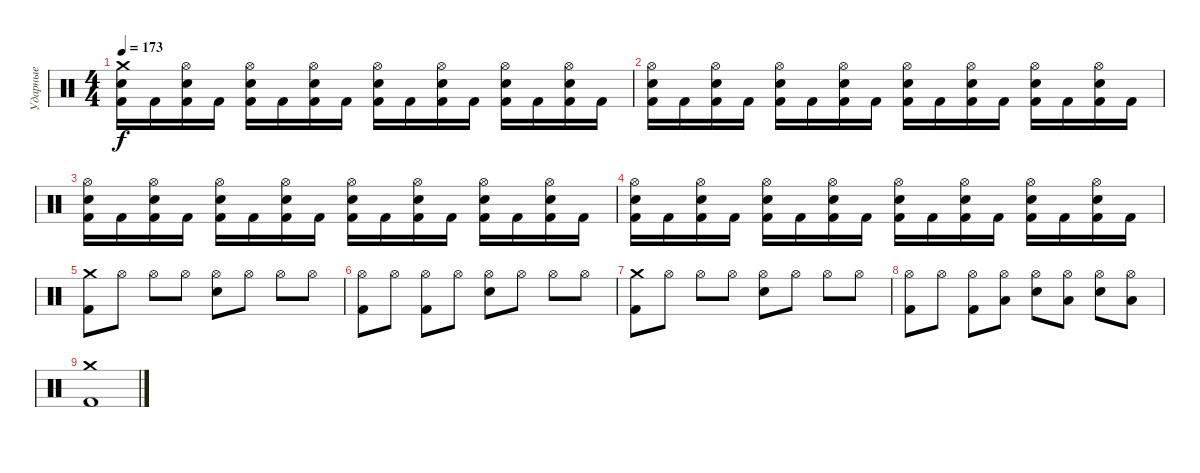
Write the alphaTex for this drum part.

\track ("Ударные" "Ударные") {instrument percussion}
\staff {score}
\articulation defaults
\ts (4 4)
\tempo 173
\clef neutral
\ks c
("Crash medium (hit)" "Electric Snare (hit)" "Kick (hit) 2").16{dy f} "Kick (hit) 2".16 ("Hi-Hat (open)" "Electric Snare (hit)" "Kick (hit) 2").16 "Kick (hit) 2".16 ("Hi-Hat (open)" "Electric Snare (hit)" "Kick (hit) 2").16 "Kick (hit) 2".16 ("Hi-Hat (open)" "Electric Snare (hit)" "Kick (hit) 2").16 "Kick (hit) 2".16 ("Hi-Hat (open)" "Electric Snare (hit)" "Kick (hit) 2").16 "Kick (hit) 2".16 ("Hi-Hat (open)" "Electric Snare (hit)" "Kick (hit) 2").16 "Kick (hit) 2".16 ("Hi-Hat (open)" "Electric Snare (hit)" "Kick (hit) 2").16 "Kick (hit) 2".16 ("Hi-Hat (open)" "Electric Snare (hit)" "Kick (hit) 2").16 "Kick (hit) 2".16 |
("Hi-Hat (open)" "Electric Snare (hit)" "Kick (hit) 2").16 "Kick (hit) 2".16 ("Hi-Hat (open)" "Electric Snare (hit)" "Kick (hit) 2").16 "Kick (hit) 2".16 ("Hi-Hat (open)" "Electric Snare (hit)" "Kick (hit) 2").16 "Kick (hit) 2".16 ("Hi-Hat (open)" "Electric Snare (hit)" "Kick (hit) 2").16 "Kick (hit) 2".16 ("Hi-Hat (open)" "Electric Snare (hit)" "Kick (hit) 2").16 "Kick (hit) 2".16 ("Hi-Hat (open)" "Electric Snare (hit)" "Kick (hit) 2").16 "Kick (hit) 2".16 ("Hi-Hat (open)" "Electric Snare (hit)" "Kick (hit) 2").16 "Kick (hit) 2".16 ("Hi-Hat (open)" "Electric Snare (hit)" "Kick (hit) 2").16 "Kick (hit) 2".16 |
("Hi-Hat (open)" "Electric Snare (hit)" "Kick (hit) 2").16 "Kick (hit) 2".16 ("Hi-Hat (open)" "Electric Snare (hit)" "Kick (hit) 2").16 "Kick (hit) 2".16 ("Hi-Hat (open)" "Electric Snare (hit)" "Kick (hit) 2").16 "Kick (hit) 2".16 ("Hi-Hat (open)" "Electric Snare (hit)" "Kick (hit) 2").16 "Kick (hit) 2".16 ("Hi-Hat (open)" "Electric Snare (hit)" "Kick (hit) 2").16 "Kick (hit) 2".16 ("Hi-Hat (open)" "Electric Snare (hit)" "Kick (hit) 2").16 "Kick (hit) 2".16 ("Hi-Hat (open)" "Electric Snare (hit)" "Kick (hit) 2").16 "Kick (hit) 2".16 ("Hi-Hat (open)" "Electric Snare (hit)" "Kick (hit) 2").16 "Kick (hit) 2".16 |
("Hi-Hat (open)" "Electric Snare (hit)" "Kick (hit) 2").16 "Kick (hit) 2".16 ("Hi-Hat (open)" "Electric Snare (hit)" "Kick (hit) 2").16 "Kick (hit) 2".16 ("Hi-Hat (open)" "Electric Snare (hit)" "Kick (hit) 2").16 "Kick (hit) 2".16 ("Hi-Hat (open)" "Electric Snare (hit)" "Kick (hit) 2").16 "Kick (hit) 2".16 ("Hi-Hat (open)" "Electric Snare (hit)" "Kick (hit) 2").16 "Kick (hit) 2".16 ("Hi-Hat (open)" "Electric Snare (hit)" "Kick (hit) 2").16 "Kick (hit) 2".16 ("Hi-Hat (open)" "Electric Snare (hit)" "Kick (hit) 2").16 "Kick (hit) 2".16 ("Hi-Hat (open)" "Electric Snare (hit)" "Kick (hit) 2").16 "Kick (hit) 2".16 |
("Crash medium (hit)" "Kick (hit) 2").8 "Hi-Hat (open)".8 "Hi-Hat (open)".8 "Hi-Hat (open)".8 ("Hi-Hat (open)" "Electric Snare (hit)").8 "Hi-Hat (open)".8 "Hi-Hat (open)".8 "Hi-Hat (open)".8 |
("Hi-Hat (open)" "Kick (hit) 2").8 "Hi-Hat (open)".8 ("Hi-Hat (open)" "Kick (hit) 2").8 "Hi-Hat (open)".8 ("Hi-Hat (open)" "Electric Snare (hit)").8 "Hi-Hat (open)".8 "Hi-Hat (open)".8 "Hi-Hat (open)".8 |
("Crash medium (hit)" "Kick (hit) 2").8 "Hi-Hat (open)".8 "Hi-Hat (open)".8 "Hi-Hat (open)".8 ("Hi-Hat (open)" "Electric Snare (hit)").8 "Hi-Hat (open)".8 "Hi-Hat (open)".8 "Hi-Hat (open)".8 |
("Hi-Hat (open)" "Kick (hit) 2").8 "Hi-Hat (open)".8 ("Hi-Hat (open)" "Kick (hit) 2").8 ("Hi-Hat (open)" "Low Tom (hit)").8 ("Hi-Hat (open)" "Electric Snare (hit)").8 ("Hi-Hat (open)" "Low Tom (hit)").8 ("Hi-Hat (open)" "Electric Snare (hit)").8 ("Hi-Hat (open)" "Low Tom (hit)").8 |
("Crash medium (hit)" "Kick (hit) 2").1
